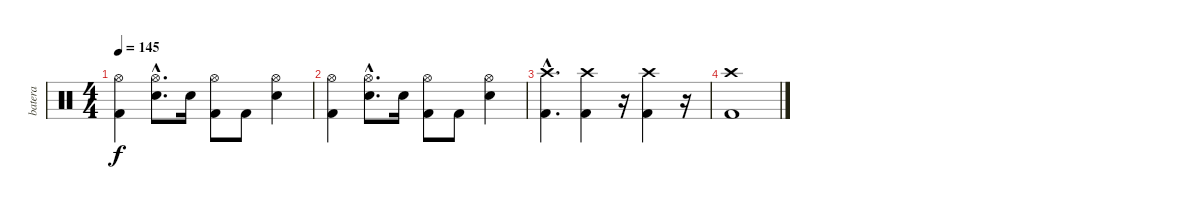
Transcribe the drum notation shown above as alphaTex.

\track ("batera" "batera") {instrument percussion}
\staff {score}
\articulation defaults
\ts (4 4)
\tempo 145
\clef neutral
\ks c
("Kick (hit) 2" "Hi-Hat (open)").4{dy f} ("Snare (hit) 2"{hac} "Hi-Hat (open)"{hac}).8{d} "Snare (hit) 2".16 ("Kick (hit) 2" "Hi-Hat (open)").8 "Kick (hit) 2".8 ("Snare (hit) 2" "Hi-Hat (open)").4 |
("Kick (hit) 2" "Hi-Hat (open)").4 ("Snare (hit) 2"{hac} "Hi-Hat (open)"{hac}).8{d} "Snare (hit) 2".16 ("Kick (hit) 2" "Hi-Hat (open)").8 "Kick (hit) 2".8 ("Snare (hit) 2" "Hi-Hat (open)").4 |
("Crash high (hit)"{hac} "Kick (hit) 2"{hac}).4{d} ("Crash high (hit)" "Kick (hit) 2").4 r.16 ("Crash high (hit)" "Kick (hit) 2").4 r.16 |
("Crash high (hit)" "Kick (hit) 2").1
